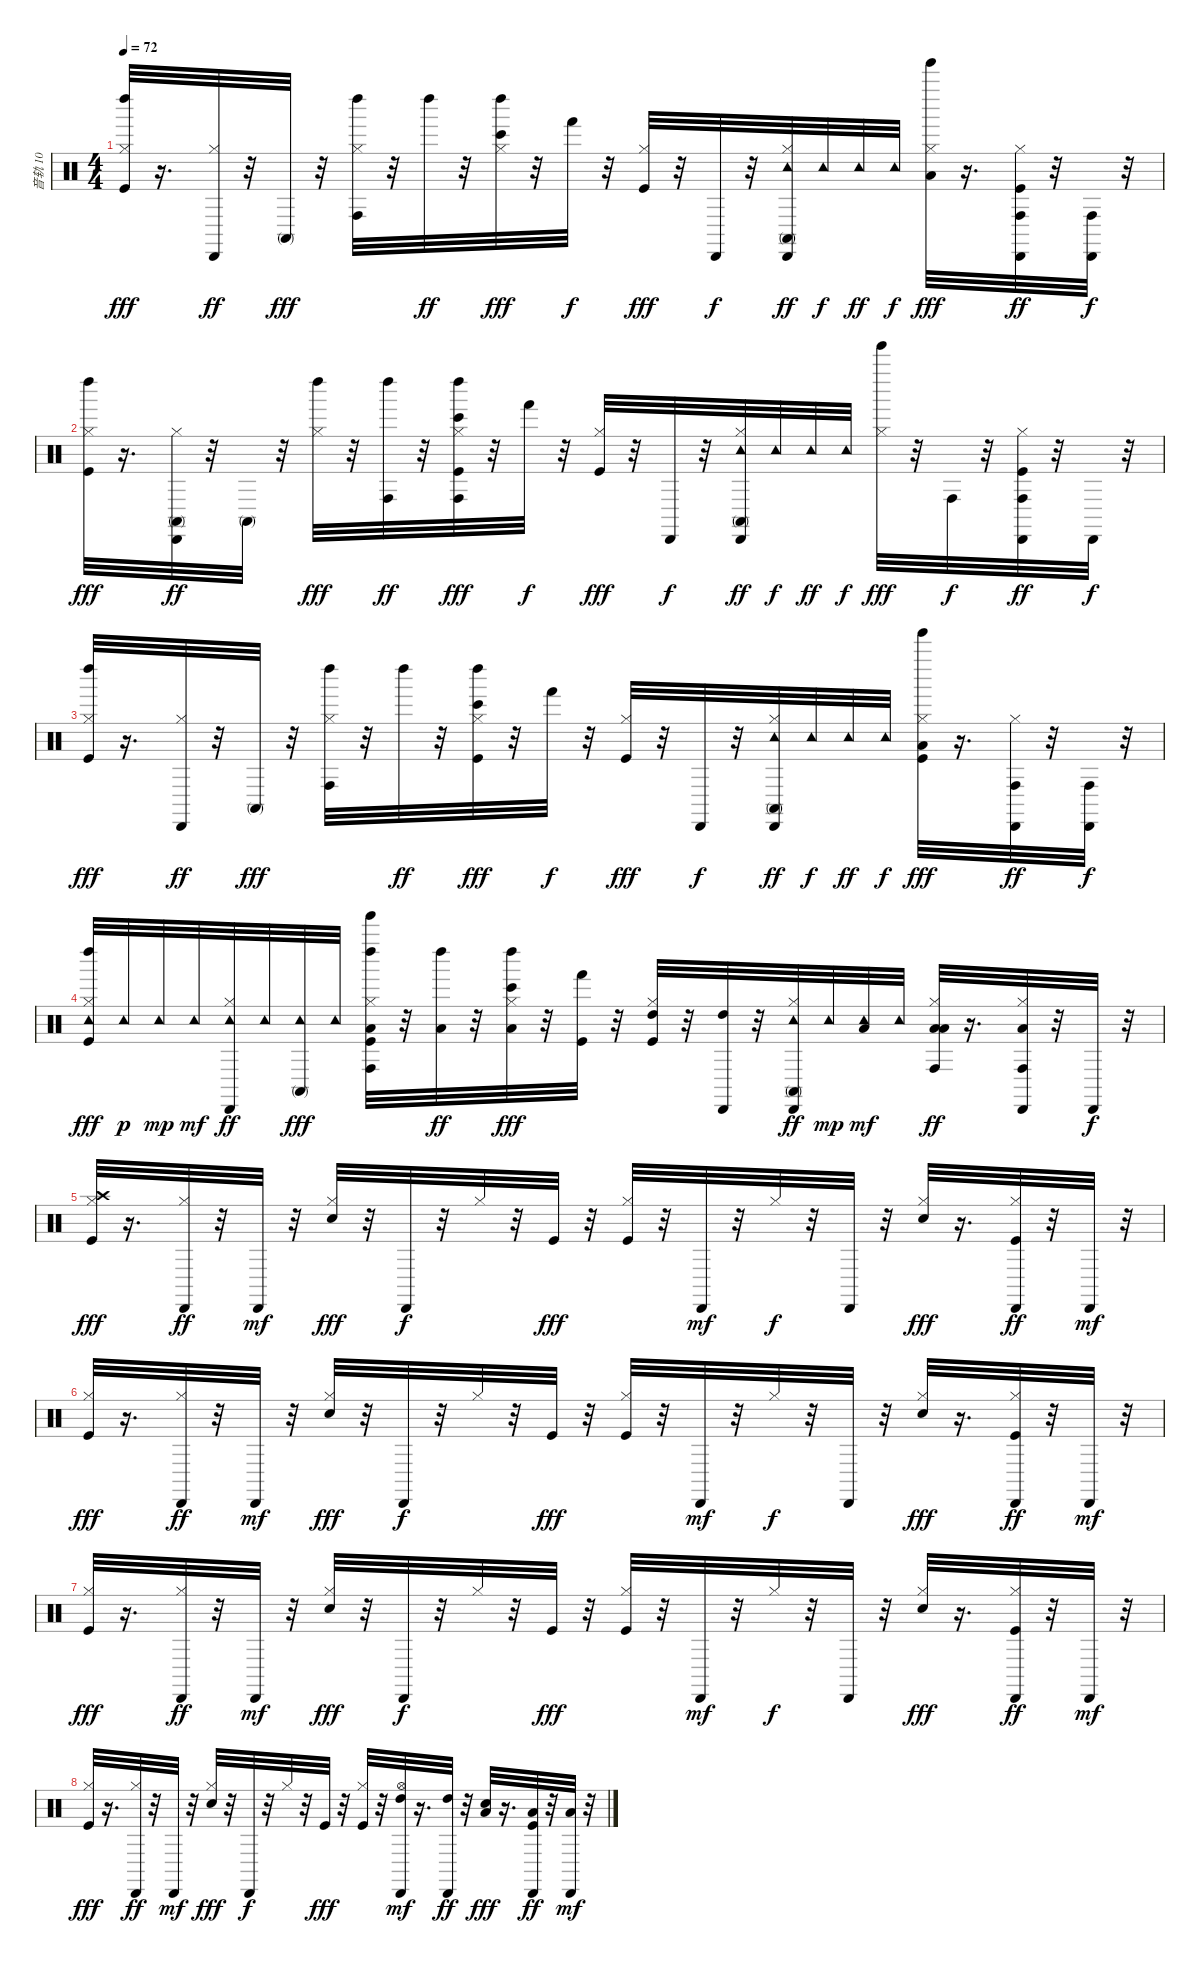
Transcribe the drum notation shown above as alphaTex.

\track ("音轨 10" "音轨 10") {instrument percussion}
\staff {score}
\articulation defaults
\ts (4 4)
\tempo 72
\clef neutral
\ks c
("Kick (hit)" "Hi-Hat (closed)" "Left Maraca (hit)").32{dy fff} r.16{d} ("Hi-Hat (closed)" "Cabasa (hit)").32{dy ff} r.32 "Conga high (mute)".32{dy fff} r.32 ("Hi-Hat (closed)" "Conga high (hit)" "Left Maraca (hit)").32 r.32 "Left Maraca (hit)".32{dy ff} r.32 ("Hi-Hat (closed)" "Bongo High (hit)" "Left Maraca (hit)").32{dy fff} r.32 "Hand (hit)".32{dy f} r.32 ("Kick (hit)" "Hi-Hat (closed)").32{dy fff} r.32 "Cabasa (hit)".32{dy f} r.32 ("Hi-Hat (closed)" "Tambourine (hit)" "Conga high (mute)" "Cabasa (hit)").32{dy ff} "Tambourine (hit)".32{dy f} "Tambourine (hit)".32{dy ff} "Tambourine (hit)".32{dy f} ("Hi-Hat (closed)" "Low Floor Tom (hit)" "Tinkle Bell (hit)").32{dy fff} r.16{d} ("Kick (hit)" "Hi-Hat (closed)" "Conga high (hit)" "Cabasa (hit)").32{dy ff} r.32 ("Conga high (hit)" "Cabasa (hit)").32{dy f} r.32 |
("Kick (hit)" "Hi-Hat (closed)" "Left Maraca (hit)").32{dy fff} r.16{d} ("Hi-Hat (closed)" "Conga high (mute)" "Cabasa (hit)").32{dy ff} r.32 "Conga high (mute)".32 r.32 ("Hi-Hat (closed)" "Left Maraca (hit)").32{dy fff} r.32 ("Conga high (hit)" "Left Maraca (hit)").32{dy ff} r.32 ("Kick (hit)" "Hi-Hat (closed)" "Bongo High (hit)" "Conga high (hit)" "Left Maraca (hit)").32{dy fff} r.32 "Hand (hit)".32{dy f} r.32 ("Kick (hit)" "Hi-Hat (closed)").32{dy fff} r.32 "Cabasa (hit)".32{dy f} r.32 ("Hi-Hat (closed)" "Tambourine (hit)" "Conga high (mute)" "Cabasa (hit)").32{dy ff} "Tambourine (hit)".32{dy f} "Tambourine (hit)".32{dy ff} "Tambourine (hit)".32{dy f} ("Hi-Hat (closed)" "Tinkle Bell (hit)").32{dy fff} r.32 "Conga high (hit)".32{dy f} r.32 ("Kick (hit)" "Hi-Hat (closed)" "Conga high (hit)" "Cabasa (hit)").32{dy ff} r.32 "Cabasa (hit)".32{dy f} r.32 |
("Kick (hit)" "Hi-Hat (closed)" "Left Maraca (hit)").32{dy fff} r.16{d} ("Hi-Hat (closed)" "Cabasa (hit)").32{dy ff} r.32 "Conga high (mute)".32{dy fff} r.32 ("Hi-Hat (closed)" "Conga high (hit)" "Left Maraca (hit)").32 r.32 "Left Maraca (hit)".32{dy ff} r.32 ("Kick (hit)" "Hi-Hat (closed)" "Bongo High (hit)" "Left Maraca (hit)").32{dy fff} r.32 "Hand (hit)".32{dy f} r.32 ("Kick (hit)" "Hi-Hat (closed)").32{dy fff} r.32 "Cabasa (hit)".32{dy f} r.32 ("Hi-Hat (closed)" "Tambourine (hit)" "Conga high (mute)" "Cabasa (hit)").32{dy ff} "Tambourine (hit)".32{dy f} "Tambourine (hit)".32{dy ff} "Tambourine (hit)".32{dy f} ("Kick (hit)" "Hi-Hat (closed)" "Low Floor Tom (hit)" "Tinkle Bell (hit)").32{dy fff} r.16{d} ("Hi-Hat (closed)" "Conga high (hit)" "Cabasa (hit)").32{dy ff} r.32 ("Conga high (hit)" "Cabasa (hit)").32{dy f} r.32 |
("Kick (hit)" "Hi-Hat (closed)" "Tambourine (hit)" "Left Maraca (hit)").32{dy fff} "Tambourine (hit)".32{dy p} "Tambourine (hit)".32{dy mp} "Tambourine (hit)".32{dy mf} ("Hi-Hat (closed)" "Tambourine (hit)" "Cabasa (hit)").32{dy ff} "Tambourine (hit)".32 ("Tambourine (hit)" "Conga high (mute)").32{dy fff} "Tambourine (hit)".32 ("Kick (hit)" "Hi-Hat (closed)" "Low Floor Tom (hit)" "Tinkle Bell (hit)" "Conga high (hit)" "Left Maraca (hit)").32 r.32 ("Low Tom (hit)" "Left Maraca (hit)").32{dy ff} r.32 ("Hi-Hat (closed)" "Low Tom (hit)" "Bongo High (hit)" "Left Maraca (hit)").32{dy fff} r.32 ("Kick (hit)" "Hand (hit)").32 r.32 ("Kick (hit)" "Hi-Hat (closed)" "High Tom (hit)").32 r.32 ("High Tom (hit)" "Cabasa (hit)").32 r.32 ("Hi-Hat (closed)" "Tambourine (hit)" "Conga high (mute)" "Cabasa (hit)").32{dy ff} "Tambourine (hit)".32{dy mp} ("Low Tom (hit)" "Tambourine (hit)").32{dy mf} "Tambourine (hit)".32 ("Hi-Hat (closed)" "Low Tom (hit)" "Low Floor Tom (hit)" "Conga high (hit)").32{dy ff} r.16{d} ("Hi-Hat (closed)" "Low Floor Tom (hit)" "Conga high (hit)" "Cabasa (hit)").32 r.32 "Cabasa (hit)".32{dy f} r.32 |
("Kick (hit)" "Hi-Hat (closed)" "Crash high (hit)").32{dy fff} r.16{d} ("Hi-Hat (closed)" "Cabasa (hit)").32{dy ff} r.32 "Cabasa (hit)".32{dy mf} r.32 ("Electric Snare (hit)" "Hi-Hat (closed)").32{dy fff} r.32 "Cabasa (hit)".32{dy f} r.32 "Hi-Hat (closed)".32 r.32 "Kick (hit)".32{dy fff} r.32 ("Kick (hit)" "Hi-Hat (closed)").32 r.32 "Cabasa (hit)".32{dy mf} r.32 "Hi-Hat (closed)".32{dy f} r.32 "Cabasa (hit)".32 r.32 ("Electric Snare (hit)" "Hi-Hat (closed)").32{dy fff} r.16{d} ("Kick (hit)" "Hi-Hat (closed)" "Cabasa (hit)").32{dy ff} r.32 "Cabasa (hit)".32{dy mf} r.32 |
("Kick (hit)" "Hi-Hat (closed)").32{dy fff} r.16{d} ("Hi-Hat (closed)" "Cabasa (hit)").32{dy ff} r.32 "Cabasa (hit)".32{dy mf} r.32 ("Electric Snare (hit)" "Hi-Hat (closed)").32{dy fff} r.32 "Cabasa (hit)".32{dy f} r.32 "Hi-Hat (closed)".32 r.32 "Kick (hit)".32{dy fff} r.32 ("Kick (hit)" "Hi-Hat (closed)").32 r.32 "Cabasa (hit)".32{dy mf} r.32 "Hi-Hat (closed)".32{dy f} r.32 "Cabasa (hit)".32 r.32 ("Electric Snare (hit)" "Hi-Hat (closed)").32{dy fff} r.16{d} ("Kick (hit)" "Hi-Hat (closed)" "Cabasa (hit)").32{dy ff} r.32 "Cabasa (hit)".32{dy mf} r.32 |
("Kick (hit)" "Hi-Hat (closed)").32{dy fff} r.16{d} ("Hi-Hat (closed)" "Cabasa (hit)").32{dy ff} r.32 "Cabasa (hit)".32{dy mf} r.32 ("Electric Snare (hit)" "Hi-Hat (closed)").32{dy fff} r.32 "Cabasa (hit)".32{dy f} r.32 "Hi-Hat (closed)".32 r.32 "Kick (hit)".32{dy fff} r.32 ("Kick (hit)" "Hi-Hat (closed)").32 r.32 "Cabasa (hit)".32{dy mf} r.32 "Hi-Hat (closed)".32{dy f} r.32 "Cabasa (hit)".32 r.32 ("Electric Snare (hit)" "Hi-Hat (closed)").32{dy fff} r.16{d} ("Kick (hit)" "Hi-Hat (closed)" "Cabasa (hit)").32{dy ff} r.32 "Cabasa (hit)".32{dy mf} r.32 |
("Kick (hit)" "Hi-Hat (closed)").32{dy fff} r.16{d} ("Hi-Hat (closed)" "Cabasa (hit)").32{dy ff} r.32 "Cabasa (hit)".32{dy mf} r.32 ("Electric Snare (hit)" "Hi-Hat (closed)").32{dy fff} r.32 "Cabasa (hit)".32{dy f} r.32 "Hi-Hat (closed)".32 r.32 "Kick (hit)".32{dy fff} r.32 ("Kick (hit)" "Hi-Hat (closed)").32 r.32 ("Hi-Hat (open)" "High Tom (hit)" "Cabasa (hit)").32{dy mf} r.16{d} ("High Tom (hit)" "Cabasa (hit)").32{dy ff} r.32 ("Electric Snare (hit)" "Low Tom (hit)").32{dy fff} r.16{d} ("Kick (hit)" "Low Tom (hit)" "Cabasa (hit)").32{dy ff} r.32 ("Low Tom (hit)" "Cabasa (hit)").32{dy mf} r.32
